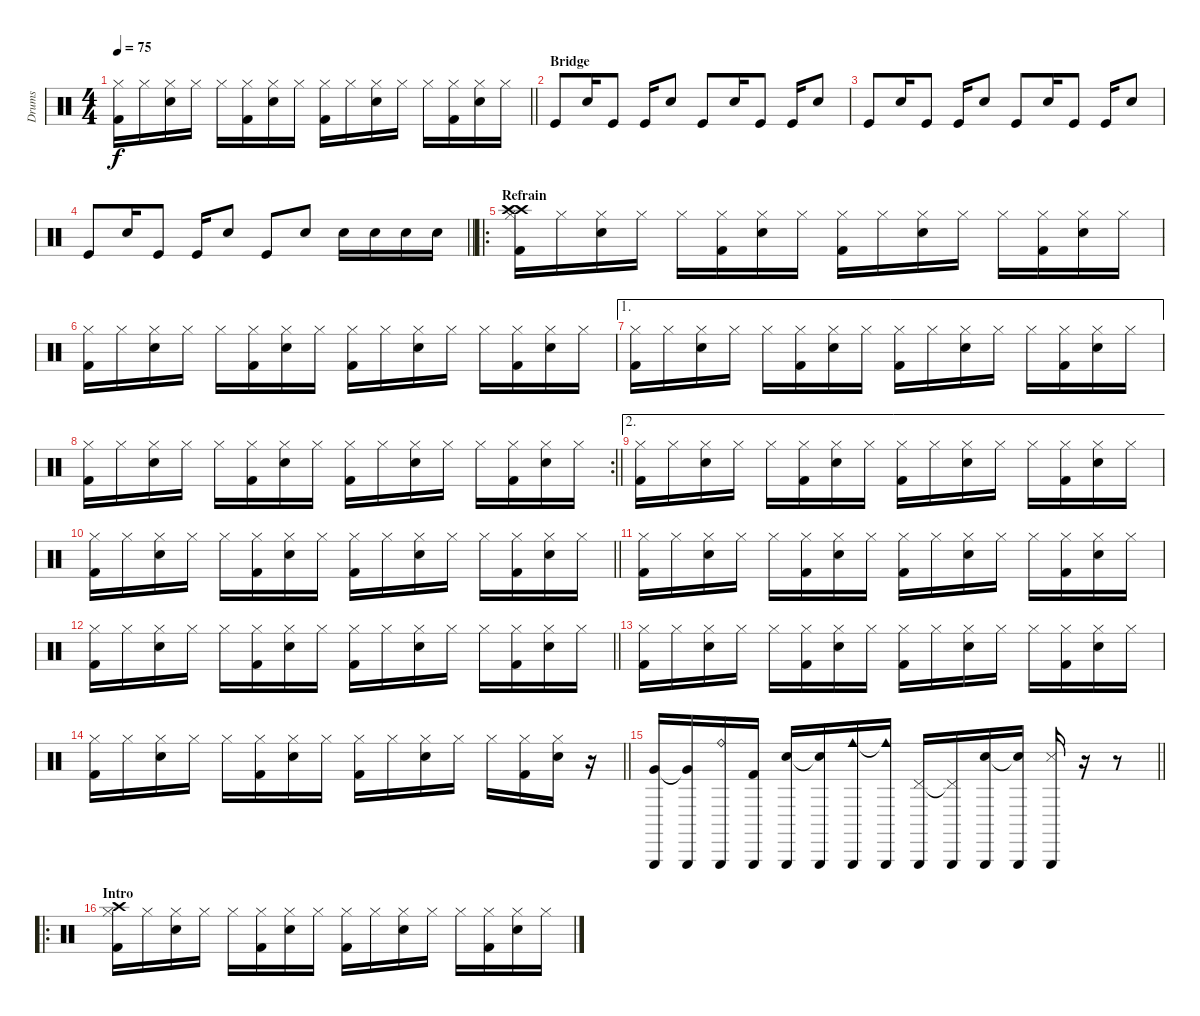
\track ("Drums" "Drums") {instrument percussion}
\staff {score}
\articulation defaults
\ts (4 4)
\tempo 75
\clef neutral
\barLineRight lightlight
\ks c
("Hi-Hat (closed)" "Kick (hit) 2").16{dy f} "Hi-Hat (closed)".16 ("Hi-Hat (closed)" "Snare (hit) 2").16 "Hi-Hat (closed)".16 "Hi-Hat (closed)".16 ("Hi-Hat (closed)" "Kick (hit) 2").16 ("Hi-Hat (closed)" "Snare (hit) 2").16 "Hi-Hat (closed)".16 ("Hi-Hat (closed)" "Kick (hit) 2").16 "Hi-Hat (closed)".16 ("Hi-Hat (closed)" "Snare (hit) 2").16 "Hi-Hat (closed)".16 "Hi-Hat (closed)".16 ("Hi-Hat (closed)" "Kick (hit) 2").16 ("Hi-Hat (closed)" "Snare (hit) 2").16 "Hi-Hat (closed)".16 |
\section ("" "Bridge")
"Kick (hit)".8 "Snare (hit) 2".16 "Kick (hit)".8 "Kick (hit)".16 "Snare (hit) 2".8 "Kick (hit)".8 "Snare (hit) 2".16 "Kick (hit)".8 "Kick (hit)".16 "Snare (hit) 2".8 |
"Kick (hit)".8 "Snare (hit) 2".16 "Kick (hit)".8 "Kick (hit)".16 "Snare (hit) 2".8 "Kick (hit)".8 "Snare (hit) 2".16 "Kick (hit)".8 "Kick (hit)".16 "Snare (hit) 2".8 |
\barLineRight lightlight "Kick (hit)".8 "Snare (hit) 2".16 "Kick (hit)".8 "Kick (hit)".16 "Snare (hit) 2".8 "Kick (hit)".8 "Snare (hit) 2".8 "Snare (hit) 2".16 "Snare (hit) 2".16 "Snare (hit) 2".16 "Snare (hit) 2".16
|
\ro
\section ("" "Refrain")
("Hi-Hat (closed)" "Crash high (hit)" "Kick (hit) 2" "Crash high (hit)").16 "Hi-Hat (closed)".16 ("Hi-Hat (closed)" "Snare (hit) 2").16 "Hi-Hat (closed)".16 "Hi-Hat (closed)".16 ("Hi-Hat (closed)" "Kick (hit) 2").16 ("Hi-Hat (closed)" "Snare (hit) 2").16 "Hi-Hat (closed)".16 ("Hi-Hat (closed)" "Kick (hit) 2").16 "Hi-Hat (closed)".16 ("Hi-Hat (closed)" "Snare (hit) 2").16 "Hi-Hat (closed)".16 "Hi-Hat (closed)".16 ("Hi-Hat (closed)" "Kick (hit) 2").16 ("Hi-Hat (closed)" "Snare (hit) 2").16 "Hi-Hat (closed)".16 |
("Hi-Hat (closed)" "Kick (hit) 2").16 "Hi-Hat (closed)".16 ("Hi-Hat (closed)" "Snare (hit) 2").16 "Hi-Hat (closed)".16 "Hi-Hat (closed)".16 ("Hi-Hat (closed)" "Kick (hit) 2").16 ("Hi-Hat (closed)" "Snare (hit) 2").16 "Hi-Hat (closed)".16 ("Hi-Hat (closed)" "Kick (hit) 2").16 "Hi-Hat (closed)".16 ("Hi-Hat (closed)" "Snare (hit) 2").16 "Hi-Hat (closed)".16 "Hi-Hat (closed)".16 ("Hi-Hat (closed)" "Kick (hit) 2").16 ("Hi-Hat (closed)" "Snare (hit) 2").16 "Hi-Hat (closed)".16 |
\ae 1
("Hi-Hat (closed)" "Kick (hit) 2").16 "Hi-Hat (closed)".16 ("Hi-Hat (closed)" "Snare (hit) 2").16 "Hi-Hat (closed)".16 "Hi-Hat (closed)".16 ("Hi-Hat (closed)" "Kick (hit) 2").16 ("Hi-Hat (closed)" "Snare (hit) 2").16 "Hi-Hat (closed)".16 ("Hi-Hat (closed)" "Kick (hit) 2").16 "Hi-Hat (closed)".16 ("Hi-Hat (closed)" "Snare (hit) 2").16 "Hi-Hat (closed)".16 "Hi-Hat (closed)".16 ("Hi-Hat (closed)" "Kick (hit) 2").16 ("Hi-Hat (closed)" "Snare (hit) 2").16 "Hi-Hat (closed)".16 |
\rc 2
\barLineRight lightlight
("Hi-Hat (closed)" "Kick (hit) 2").16 "Hi-Hat (closed)".16 ("Hi-Hat (closed)" "Snare (hit) 2").16 "Hi-Hat (closed)".16 "Hi-Hat (closed)".16 ("Hi-Hat (closed)" "Kick (hit) 2").16 ("Hi-Hat (closed)" "Snare (hit) 2").16 "Hi-Hat (closed)".16 ("Hi-Hat (closed)" "Kick (hit) 2").16 "Hi-Hat (closed)".16 ("Hi-Hat (closed)" "Snare (hit) 2").16 "Hi-Hat (closed)".16 "Hi-Hat (closed)".16 ("Hi-Hat (closed)" "Kick (hit) 2").16 ("Hi-Hat (closed)" "Snare (hit) 2").16 "Hi-Hat (closed)".16 |
\ae 2
("Hi-Hat (closed)" "Kick (hit) 2").16 "Hi-Hat (closed)".16 ("Hi-Hat (closed)" "Snare (hit) 2").16 "Hi-Hat (closed)".16 "Hi-Hat (closed)".16 ("Hi-Hat (closed)" "Kick (hit) 2").16 ("Hi-Hat (closed)" "Snare (hit) 2").16 "Hi-Hat (closed)".16 ("Hi-Hat (closed)" "Kick (hit) 2").16 "Hi-Hat (closed)".16 ("Hi-Hat (closed)" "Snare (hit) 2").16 "Hi-Hat (closed)".16 "Hi-Hat (closed)".16 ("Hi-Hat (closed)" "Kick (hit) 2").16 ("Hi-Hat (closed)" "Snare (hit) 2").16 "Hi-Hat (closed)".16 |
\barLineRight lightlight
("Hi-Hat (closed)" "Kick (hit) 2").16 "Hi-Hat (closed)".16 ("Hi-Hat (closed)" "Snare (hit) 2").16 "Hi-Hat (closed)".16 "Hi-Hat (closed)".16 ("Hi-Hat (closed)" "Kick (hit) 2").16 ("Hi-Hat (closed)" "Snare (hit) 2").16 "Hi-Hat (closed)".16 ("Hi-Hat (closed)" "Kick (hit) 2").16 "Hi-Hat (closed)".16 ("Hi-Hat (closed)" "Snare (hit) 2").16 "Hi-Hat (closed)".16 "Hi-Hat (closed)".16 ("Hi-Hat (closed)" "Kick (hit) 2").16 ("Hi-Hat (closed)" "Snare (hit) 2").16 "Hi-Hat (closed)".16 |
("Hi-Hat (closed)" "Kick (hit) 2").16 "Hi-Hat (closed)".16 ("Hi-Hat (closed)" "Snare (hit) 2").16 "Hi-Hat (closed)".16 "Hi-Hat (closed)".16 ("Hi-Hat (closed)" "Kick (hit) 2").16 ("Hi-Hat (closed)" "Snare (hit) 2").16 "Hi-Hat (closed)".16 ("Hi-Hat (closed)" "Kick (hit) 2").16 "Hi-Hat (closed)".16 ("Hi-Hat (closed)" "Snare (hit) 2").16 "Hi-Hat (closed)".16 "Hi-Hat (closed)".16 ("Hi-Hat (closed)" "Kick (hit) 2").16 ("Hi-Hat (closed)" "Snare (hit) 2").16 "Hi-Hat (closed)".16 |
\barLineRight lightlight
("Hi-Hat (closed)" "Kick (hit) 2").16 "Hi-Hat (closed)".16 ("Hi-Hat (closed)" "Snare (hit) 2").16 "Hi-Hat (closed)".16 "Hi-Hat (closed)".16 ("Hi-Hat (closed)" "Kick (hit) 2").16 ("Hi-Hat (closed)" "Snare (hit) 2").16 "Hi-Hat (closed)".16 ("Hi-Hat (closed)" "Kick (hit) 2").16 "Hi-Hat (closed)".16 ("Hi-Hat (closed)" "Snare (hit) 2").16 "Hi-Hat (closed)".16 "Hi-Hat (closed)".16 ("Hi-Hat (closed)" "Kick (hit) 2").16 ("Hi-Hat (closed)" "Snare (hit) 2").16 "Hi-Hat (closed)".16 |
("Hi-Hat (closed)" "Kick (hit) 2").16 "Hi-Hat (closed)".16 ("Hi-Hat (closed)" "Snare (hit) 2").16 "Hi-Hat (closed)".16 "Hi-Hat (closed)".16 ("Hi-Hat (closed)" "Kick (hit) 2").16 ("Hi-Hat (closed)" "Snare (hit) 2").16 "Hi-Hat (closed)".16 ("Hi-Hat (closed)" "Kick (hit) 2").16 "Hi-Hat (closed)".16 ("Hi-Hat (closed)" "Snare (hit) 2").16 "Hi-Hat (closed)".16 "Hi-Hat (closed)".16 ("Hi-Hat (closed)" "Kick (hit) 2").16 ("Hi-Hat (closed)" "Snare (hit) 2").16 "Hi-Hat (closed)".16 |
\barLineRight lightlight
("Hi-Hat (closed)" "Kick (hit) 2").16 "Hi-Hat (closed)".16 ("Hi-Hat (closed)" "Snare (hit) 2").16 "Hi-Hat (closed)".16 "Hi-Hat (closed)".16 ("Hi-Hat (closed)" "Kick (hit) 2").16 ("Hi-Hat (closed)" "Snare (hit) 2").16 "Hi-Hat (closed)".16 ("Hi-Hat (closed)" "Kick (hit) 2").16 "Hi-Hat (closed)".16 ("Hi-Hat (closed)" "Snare (hit) 2").16 "Hi-Hat (closed)".16 "Hi-Hat (closed)".16 ("Hi-Hat (closed)" "Kick (hit) 2").16 ("Hi-Hat (closed)" "Snare (hit) 2").16 r.16 |
\barLineRight lightlight
("Triangle (hit)" "Very Low Tom (hit)").16 ("Triangle (hit)" "Very Low Tom (hit)"{t}).16 ("Triangle (hit)" "Ride (bell)").16 ("Triangle (hit)" "Kick (hit) 2").16 ("Triangle (hit)" "Electric Snare (hit)").16 ("Triangle (hit)" "Electric Snare (hit)"{t}).16 ("Triangle (hit)" "Cowbell medium (hit)").16 ("Triangle (hit)" "Cowbell medium (hit)"{t}).16 ("Triangle (hit)" "Pedal Hi-Hat (hit)").16 ("Triangle (hit)" "Pedal Hi-Hat (hit)"{t}).16 ("Triangle (hit)" "Snare (hit) 2").16 ("Triangle (hit)" "Snare (hit) 2"{t}).16 ("Triangle (hit)" "Snare (side stick) 3").16 r.16 r.8 |
\ro
\section ("" "Intro")
("Hi-Hat (closed)" "Kick (hit) 2" "Crash high (hit)").16 "Hi-Hat (closed)".16 ("Hi-Hat (closed)" "Snare (hit) 2").16 "Hi-Hat (closed)".16 "Hi-Hat (closed)".16 ("Hi-Hat (closed)" "Kick (hit) 2").16 ("Hi-Hat (closed)" "Snare (hit) 2").16 "Hi-Hat (closed)".16 ("Hi-Hat (closed)" "Kick (hit) 2").16 "Hi-Hat (closed)".16 ("Hi-Hat (closed)" "Snare (hit) 2").16 "Hi-Hat (closed)".16 "Hi-Hat (closed)".16 ("Hi-Hat (closed)" "Kick (hit) 2").16 ("Hi-Hat (closed)" "Snare (hit) 2").16 "Hi-Hat (closed)".16
